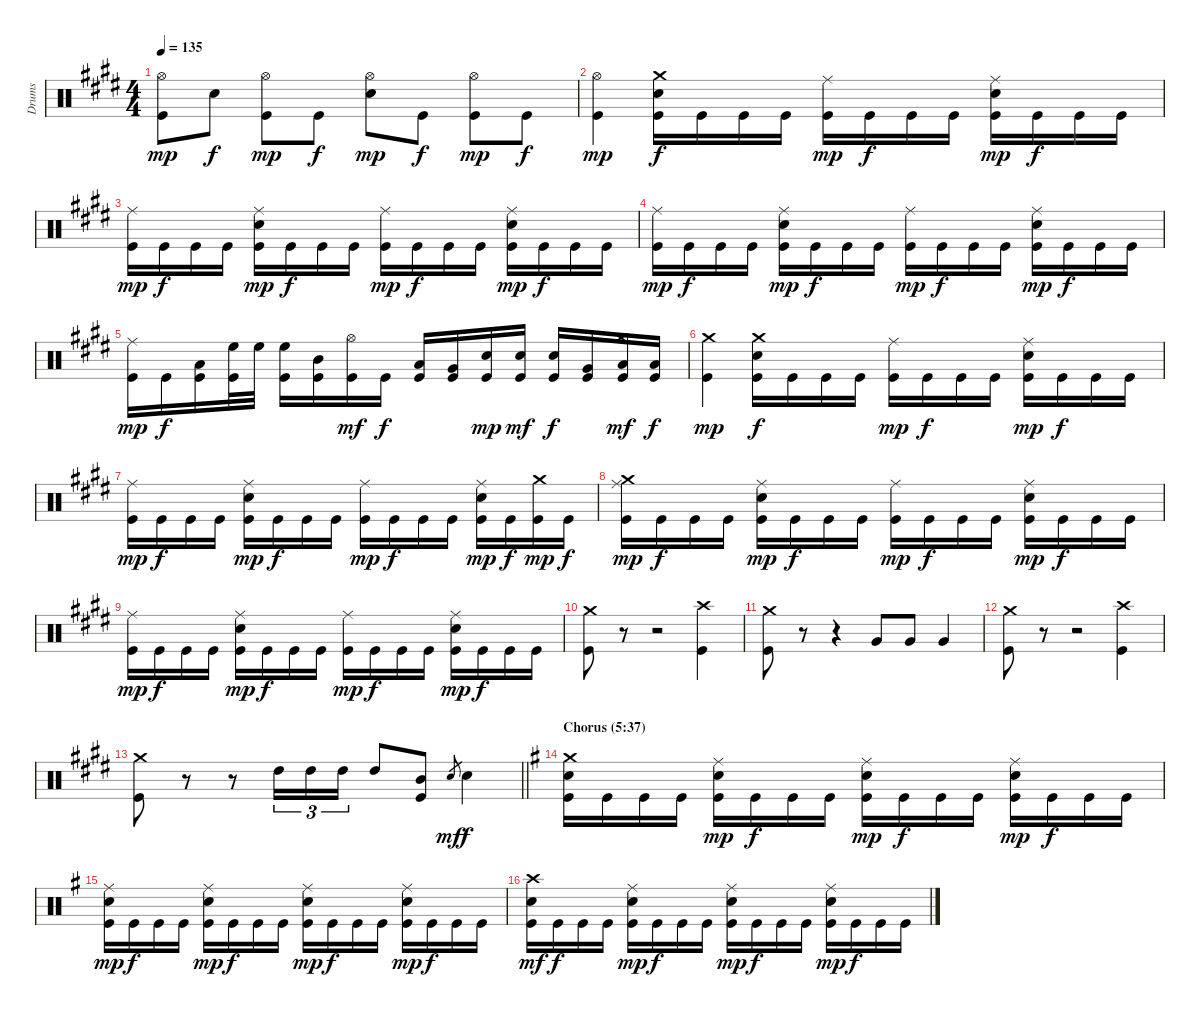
\track ("Drums" "Drums") {instrument percussion}
\staff {score}
\articulation defaults
\ts (4 4)
\tempo 135
\clef neutral
\ks c#minor
("Hi-Hat (open)" "Kick (hit)").8{dy mp} "Snare (hit) 2".8{dy f} ("Hi-Hat (open)" "Kick (hit)").8{dy mp} "Kick (hit)".8{dy f} ("Hi-Hat (open)" "Snare (hit) 2").8{dy mp} "Kick (hit)".8{dy f} ("Hi-Hat (open)" "Kick (hit)").8{dy mp} "Kick (hit)".8{dy f} |
("Hi-Hat (open)" "Kick (hit)").4{dy mp} ("Crash medium (hit)" "Snare (hit) 2" "Kick (hit)").16{dy f} "Kick (hit)".16 "Kick (hit)".16 "Kick (hit)".16 ("Ride (middle)" "Kick (hit)").16{dy mp} "Kick (hit)".16{dy f} "Kick (hit)".16 "Kick (hit)".16 ("Ride (middle)" "Snare (hit) 2" "Kick (hit)").16{dy mp} "Kick (hit)".16{dy f} "Kick (hit)".16 "Kick (hit)".16 |
("Ride (middle)" "Kick (hit)").16{dy mp} "Kick (hit)".16{dy f} "Kick (hit)".16 "Kick (hit)".16 ("Ride (middle)" "Snare (hit) 2" "Kick (hit)").16{dy mp} "Kick (hit)".16{dy f} "Kick (hit)".16 "Kick (hit)".16 ("Ride (middle)" "Kick (hit)").16{dy mp} "Kick (hit)".16{dy f} "Kick (hit)".16 "Kick (hit)".16 ("Ride (middle)" "Snare (hit) 2" "Kick (hit)").16{dy mp} "Kick (hit)".16{dy f} "Kick (hit)".16 "Kick (hit)".16 |
("Ride (middle)" "Kick (hit)").16{dy mp} "Kick (hit)".16{dy f} "Kick (hit)".16 "Kick (hit)".16 ("Ride (middle)" "Snare (hit) 2" "Kick (hit)").16{dy mp} "Kick (hit)".16{dy f} "Kick (hit)".16 "Kick (hit)".16 ("Ride (middle)" "Kick (hit)").16{dy mp} "Kick (hit)".16{dy f} "Kick (hit)".16 "Kick (hit)".16 ("Ride (middle)" "Snare (hit) 2" "Kick (hit)").16{dy mp} "Kick (hit)".16{dy f} "Kick (hit)".16 "Kick (hit)".16 |
("Ride (middle)" "Kick (hit)").16{dy mp} "Kick (hit)".16{dy f} ("Low Tom (hit)" "Kick (hit)").16 ("High Floor Tom (hit)" "Kick (hit)").32 "High Floor Tom (hit)".32 ("High Floor Tom (hit)" "Kick (hit)").16 ("Mid Tom (hit)" "Kick (hit)").16 ("Hi-Hat (open)" "Kick (hit)").16{dy mf} "Kick (hit)".16{dy f} ("Low Tom (hit)" "Kick (hit)").16 ("Very Low Tom (hit)" "Kick (hit)").16 ("Snare (hit) 2" "Kick (hit)").16{dy mp} ("Snare (hit) 2" "Kick (hit)").16{dy mf} ("Snare (hit) 2" "Kick (hit)").16{dy f} ("Very Low Tom (hit)" "Kick (hit)").16 ("Crash medium (hit)" "Low Floor Tom (hit)" "Kick (hit)").16{dy mf} ("Low Floor Tom (hit)" "Kick (hit)").16{dy f} |
("Crash medium (hit)" "Kick (hit)").4{dy mp} ("Crash medium (hit)" "Snare (hit) 2" "Kick (hit)").16{dy f} "Kick (hit)".16 "Kick (hit)".16 "Kick (hit)".16 ("Ride (middle)" "Kick (hit)").16{dy mp} "Kick (hit)".16{dy f} "Kick (hit)".16 "Kick (hit)".16 ("Ride (middle)" "Snare (hit) 2" "Kick (hit)").16{dy mp} "Kick (hit)".16{dy f} "Kick (hit)".16 "Kick (hit)".16 |
("Ride (middle)" "Kick (hit)").16{dy mp} "Kick (hit)".16{dy f} "Kick (hit)".16 "Kick (hit)".16 ("Ride (middle)" "Snare (hit) 2" "Kick (hit)").16{dy mp} "Kick (hit)".16{dy f} "Kick (hit)".16 "Kick (hit)".16 ("Ride (middle)" "Kick (hit)").16{dy mp} "Kick (hit)".16{dy f} "Kick (hit)".16 "Kick (hit)".16 ("Ride (middle)" "Snare (hit) 2" "Kick (hit)").16{dy mp} "Kick (hit)".16{dy f} ("Crash medium (hit)" "Kick (hit)").16{dy mp} "Kick (hit)".16{dy f} |
("Crash medium (hit)" "Ride (middle)" "Kick (hit)").16{dy mp} "Kick (hit)".16{dy f} "Kick (hit)".16 "Kick (hit)".16 ("Ride (middle)" "Snare (hit) 2" "Kick (hit)").16{dy mp} "Kick (hit)".16{dy f} "Kick (hit)".16 "Kick (hit)".16 ("Ride (middle)" "Kick (hit)").16{dy mp} "Kick (hit)".16{dy f} "Kick (hit)".16 "Kick (hit)".16 ("Ride (middle)" "Snare (hit) 2" "Kick (hit)").16{dy mp} "Kick (hit)".16{dy f} "Kick (hit)".16 "Kick (hit)".16 |
("Ride (middle)" "Kick (hit)").16{dy mp} "Kick (hit)".16{dy f} "Kick (hit)".16 "Kick (hit)".16 ("Ride (middle)" "Snare (hit) 2" "Kick (hit)").16{dy mp} "Kick (hit)".16{dy f} "Kick (hit)".16 "Kick (hit)".16 ("Ride (middle)" "Kick (hit)").16{dy mp} "Kick (hit)".16{dy f} "Kick (hit)".16 "Kick (hit)".16 ("Ride (middle)" "Snare (hit) 2" "Kick (hit)").16{dy mp} "Kick (hit)".16{dy f} "Kick (hit)".16 "Kick (hit)".16 |
("Crash medium (hit)" "Kick (hit)").8 r.8 r.2 ("Crash high (hit)" "Kick (hit)").4 |
("Crash medium (hit)" "Kick (hit)").8 r.8 r.4 "Very Low Tom (hit)".8 "Very Low Tom (hit)".8 "Very Low Tom (hit)".4 |
("Crash medium (hit)" "Kick (hit)").8 r.8 r.2 ("Crash high (hit)" "Kick (hit)").4 |
\barLineRight lightlight
("Crash medium (hit)" "Kick (hit)").8 r.8 r.8 "High Tom (hit)".16{tu (3 2)} "High Tom (hit)".16{tu (3 2)} "High Tom (hit)".16{tu (3 2)} "High Tom (hit)".8 ("Mid Tom (hit)" "Kick (hit)").8 "Snare (hit) 2".8{gr dy mf} "Snare (hit) 2".4{dy f} |
\section ("" "Chorus (5:37)")
\ks eminor
("Crash medium (hit)" "Snare (hit) 2" "Kick (hit)").16 "Kick (hit)".16 "Kick (hit)".16 "Kick (hit)".16 ("Ride (middle)" "Snare (hit) 2" "Kick (hit)").16{dy mp} "Kick (hit)".16{dy f} "Kick (hit)".16 "Kick (hit)".16 ("Ride (middle)" "Snare (hit) 2" "Kick (hit)").16{dy mp} "Kick (hit)".16{dy f} "Kick (hit)".16 "Kick (hit)".16 ("Ride (middle)" "Snare (hit) 2" "Kick (hit)").16{dy mp} "Kick (hit)".16{dy f} "Kick (hit)".16 "Kick (hit)".16 |
("Ride (middle)" "Snare (hit) 2" "Kick (hit)").16{dy mp} "Kick (hit)".16{dy f} "Kick (hit)".16 "Kick (hit)".16 ("Ride (middle)" "Snare (hit) 2" "Kick (hit)").16{dy mp} "Kick (hit)".16{dy f} "Kick (hit)".16 "Kick (hit)".16 ("Ride (middle)" "Snare (hit) 2" "Kick (hit)").16{dy mp} "Kick (hit)".16{dy f} "Kick (hit)".16 "Kick (hit)".16 ("Ride (middle)" "Snare (hit) 2" "Kick (hit)").16{dy mp} "Kick (hit)".16{dy f} "Kick (hit)".16 "Kick (hit)".16 |
("Crash high (hit)" "Snare (hit) 2" "Kick (hit)").16{dy mf} "Kick (hit)".16{dy f} "Kick (hit)".16 "Kick (hit)".16 ("Ride (middle)" "Snare (hit) 2" "Kick (hit)").16{dy mp} "Kick (hit)".16{dy f} "Kick (hit)".16 "Kick (hit)".16 ("Ride (middle)" "Snare (hit) 2" "Kick (hit)").16{dy mp} "Kick (hit)".16{dy f} "Kick (hit)".16 "Kick (hit)".16 ("Ride (middle)" "Snare (hit) 2" "Kick (hit)").16{dy mp} "Kick (hit)".16{dy f} "Kick (hit)".16 "Kick (hit)".16
